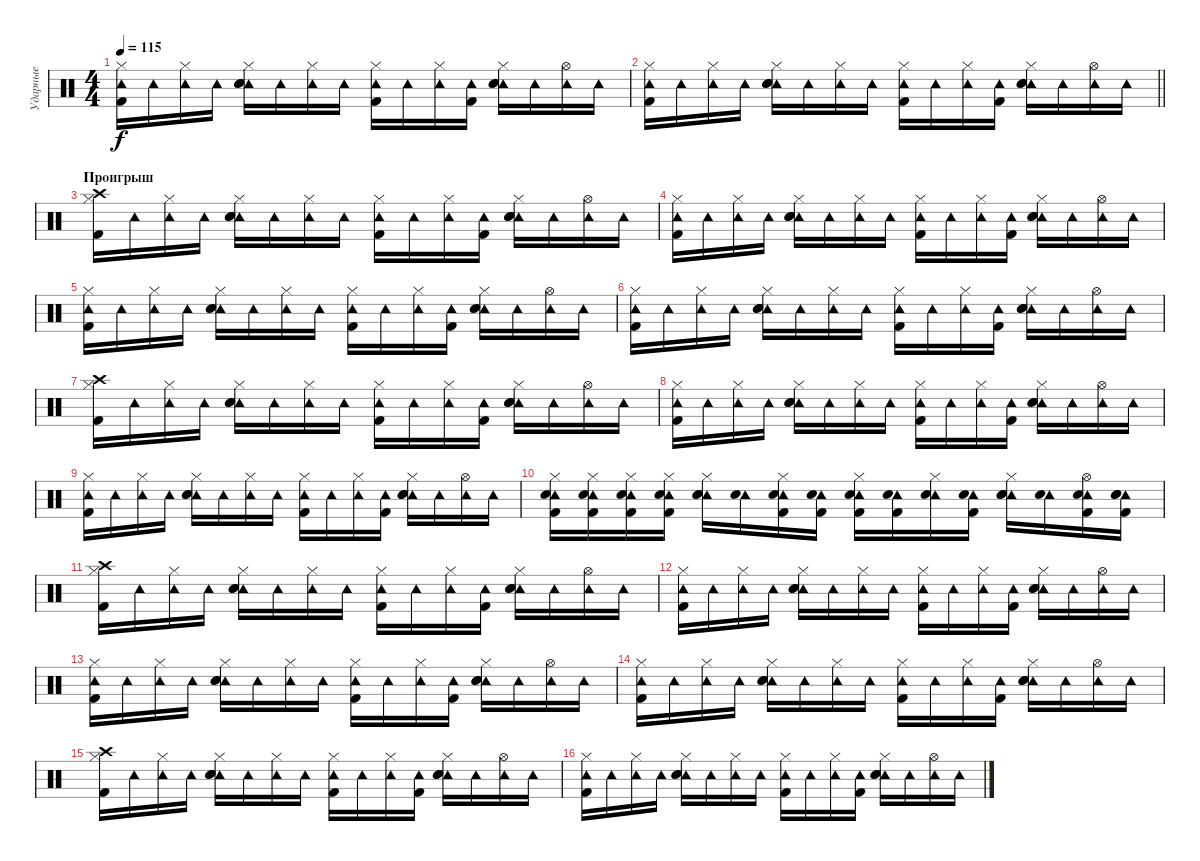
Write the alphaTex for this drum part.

\track ("Ударные" "Ударные") {instrument percussion}
\staff {score}
\articulation defaults
\ts (4 4)
\tempo 115
\clef neutral
\ks c
("Tambourine (hit)" "Hi-Hat (closed)" "Kick (hit) 2").16{dy f} "Tambourine (hit)".16 ("Tambourine (hit)" "Hi-Hat (closed)").16 "Tambourine (hit)".16 ("Tambourine (hit)" "Hi-Hat (closed)" "Electric Snare (hit)" "Snare (hit) 2").16 "Tambourine (hit)".16 ("Tambourine (hit)" "Hi-Hat (closed)").16 "Tambourine (hit)".16 ("Tambourine (hit)" "Hi-Hat (closed)" "Kick (hit) 2").16 "Tambourine (hit)".16 ("Tambourine (hit)" "Hi-Hat (closed)").16 ("Tambourine (hit)" "Kick (hit) 2").16 ("Tambourine (hit)" "Hi-Hat (closed)" "Electric Snare (hit)" "Snare (hit) 2").16 "Tambourine (hit)".16 ("Tambourine (hit)" "Hi-Hat (open)").16 "Tambourine (hit)".16 |
\barLineRight lightlight
("Tambourine (hit)" "Hi-Hat (closed)" "Kick (hit) 2").16 "Tambourine (hit)".16 ("Tambourine (hit)" "Hi-Hat (closed)").16 "Tambourine (hit)".16 ("Tambourine (hit)" "Hi-Hat (closed)" "Electric Snare (hit)" "Snare (hit) 2").16 "Tambourine (hit)".16 ("Tambourine (hit)" "Hi-Hat (closed)").16 "Tambourine (hit)".16 ("Tambourine (hit)" "Hi-Hat (closed)" "Kick (hit) 2").16 "Tambourine (hit)".16 ("Tambourine (hit)" "Hi-Hat (closed)").16 ("Tambourine (hit)" "Kick (hit) 2").16 ("Tambourine (hit)" "Hi-Hat (closed)" "Electric Snare (hit)" "Snare (hit) 2").16 "Tambourine (hit)".16 ("Tambourine (hit)" "Hi-Hat (open)").16 "Tambourine (hit)".16 |
\section ("" "Проигрыш")
("Crash high (hit)" "Hi-Hat (closed)" "Kick (hit) 2").16 "Tambourine (hit)".16 ("Tambourine (hit)" "Hi-Hat (closed)").16 "Tambourine (hit)".16 ("Tambourine (hit)" "Hi-Hat (closed)" "Electric Snare (hit)" "Snare (hit) 2").16 "Tambourine (hit)".16 ("Tambourine (hit)" "Hi-Hat (closed)").16 "Tambourine (hit)".16 ("Tambourine (hit)" "Hi-Hat (closed)" "Kick (hit) 2").16 "Tambourine (hit)".16 ("Tambourine (hit)" "Hi-Hat (closed)").16 ("Tambourine (hit)" "Kick (hit) 2").16 ("Tambourine (hit)" "Hi-Hat (closed)" "Electric Snare (hit)" "Snare (hit) 2").16 "Tambourine (hit)".16 ("Tambourine (hit)" "Hi-Hat (open)").16 "Tambourine (hit)".16 |
("Tambourine (hit)" "Hi-Hat (closed)" "Kick (hit) 2").16 "Tambourine (hit)".16 ("Tambourine (hit)" "Hi-Hat (closed)").16 "Tambourine (hit)".16 ("Tambourine (hit)" "Hi-Hat (closed)" "Electric Snare (hit)" "Snare (hit) 2").16 "Tambourine (hit)".16 ("Tambourine (hit)" "Hi-Hat (closed)").16 "Tambourine (hit)".16 ("Tambourine (hit)" "Hi-Hat (closed)" "Kick (hit) 2").16 "Tambourine (hit)".16 ("Tambourine (hit)" "Hi-Hat (closed)").16 ("Tambourine (hit)" "Kick (hit) 2").16 ("Tambourine (hit)" "Hi-Hat (closed)" "Electric Snare (hit)" "Snare (hit) 2").16 "Tambourine (hit)".16 ("Tambourine (hit)" "Hi-Hat (open)").16 "Tambourine (hit)".16 |
("Tambourine (hit)" "Hi-Hat (closed)" "Kick (hit) 2").16 "Tambourine (hit)".16 ("Tambourine (hit)" "Hi-Hat (closed)").16 "Tambourine (hit)".16 ("Tambourine (hit)" "Hi-Hat (closed)" "Electric Snare (hit)" "Snare (hit) 2").16 "Tambourine (hit)".16 ("Tambourine (hit)" "Hi-Hat (closed)").16 "Tambourine (hit)".16 ("Tambourine (hit)" "Hi-Hat (closed)" "Kick (hit) 2").16 "Tambourine (hit)".16 ("Tambourine (hit)" "Hi-Hat (closed)").16 ("Tambourine (hit)" "Kick (hit) 2").16 ("Tambourine (hit)" "Hi-Hat (closed)" "Electric Snare (hit)" "Snare (hit) 2").16 "Tambourine (hit)".16 ("Tambourine (hit)" "Hi-Hat (open)").16 "Tambourine (hit)".16 |
("Tambourine (hit)" "Hi-Hat (closed)" "Kick (hit) 2").16 "Tambourine (hit)".16 ("Tambourine (hit)" "Hi-Hat (closed)").16 "Tambourine (hit)".16 ("Tambourine (hit)" "Hi-Hat (closed)" "Electric Snare (hit)" "Snare (hit) 2").16 "Tambourine (hit)".16 ("Tambourine (hit)" "Hi-Hat (closed)").16 "Tambourine (hit)".16 ("Tambourine (hit)" "Hi-Hat (closed)" "Kick (hit) 2").16 "Tambourine (hit)".16 ("Tambourine (hit)" "Hi-Hat (closed)").16 ("Tambourine (hit)" "Kick (hit) 2").16 ("Tambourine (hit)" "Hi-Hat (closed)" "Electric Snare (hit)" "Snare (hit) 2").16 "Tambourine (hit)".16 ("Tambourine (hit)" "Hi-Hat (open)").16 "Tambourine (hit)".16 |
("Crash high (hit)" "Hi-Hat (closed)" "Kick (hit) 2").16 "Tambourine (hit)".16 ("Tambourine (hit)" "Hi-Hat (closed)").16 "Tambourine (hit)".16 ("Tambourine (hit)" "Hi-Hat (closed)" "Electric Snare (hit)" "Snare (hit) 2").16 "Tambourine (hit)".16 ("Tambourine (hit)" "Hi-Hat (closed)").16 "Tambourine (hit)".16 ("Tambourine (hit)" "Hi-Hat (closed)" "Kick (hit) 2").16 "Tambourine (hit)".16 ("Tambourine (hit)" "Hi-Hat (closed)").16 ("Tambourine (hit)" "Kick (hit) 2").16 ("Tambourine (hit)" "Hi-Hat (closed)" "Electric Snare (hit)" "Snare (hit) 2").16 "Tambourine (hit)".16 ("Tambourine (hit)" "Hi-Hat (open)").16 "Tambourine (hit)".16 |
("Tambourine (hit)" "Hi-Hat (closed)" "Kick (hit) 2").16 "Tambourine (hit)".16 ("Tambourine (hit)" "Hi-Hat (closed)").16 "Tambourine (hit)".16 ("Tambourine (hit)" "Hi-Hat (closed)" "Electric Snare (hit)" "Snare (hit) 2").16 "Tambourine (hit)".16 ("Tambourine (hit)" "Hi-Hat (closed)").16 "Tambourine (hit)".16 ("Tambourine (hit)" "Hi-Hat (closed)" "Kick (hit) 2").16 "Tambourine (hit)".16 ("Tambourine (hit)" "Hi-Hat (closed)").16 ("Tambourine (hit)" "Kick (hit) 2").16 ("Tambourine (hit)" "Hi-Hat (closed)" "Electric Snare (hit)" "Snare (hit) 2").16 "Tambourine (hit)".16 ("Tambourine (hit)" "Hi-Hat (open)").16 "Tambourine (hit)".16 |
("Tambourine (hit)" "Hi-Hat (closed)" "Kick (hit) 2").16 "Tambourine (hit)".16 ("Tambourine (hit)" "Hi-Hat (closed)").16 "Tambourine (hit)".16 ("Tambourine (hit)" "Hi-Hat (closed)" "Electric Snare (hit)" "Snare (hit) 2").16 "Tambourine (hit)".16 ("Tambourine (hit)" "Hi-Hat (closed)").16 "Tambourine (hit)".16 ("Tambourine (hit)" "Hi-Hat (closed)" "Kick (hit) 2").16 "Tambourine (hit)".16 ("Tambourine (hit)" "Hi-Hat (closed)").16 ("Tambourine (hit)" "Kick (hit) 2").16 ("Tambourine (hit)" "Hi-Hat (closed)" "Electric Snare (hit)" "Snare (hit) 2").16 "Tambourine (hit)".16 ("Tambourine (hit)" "Hi-Hat (open)").16 "Tambourine (hit)".16 |
("Tambourine (hit)" "Hi-Hat (closed)" "Electric Snare (hit)" "Kick (hit) 2").16 ("Tambourine (hit)" "Hi-Hat (closed)" "Electric Snare (hit)" "Kick (hit) 2").16 ("Tambourine (hit)" "Hi-Hat (closed)" "Electric Snare (hit)" "Kick (hit) 2").16 ("Tambourine (hit)" "Hi-Hat (closed)" "Electric Snare (hit)" "Kick (hit) 2").16 ("Tambourine (hit)" "Hi-Hat (closed)" "Electric Snare (hit)" "Snare (hit) 2").16 ("Tambourine (hit)" "Electric Snare (hit)").16 ("Tambourine (hit)" "Hi-Hat (closed)" "Electric Snare (hit)" "Kick (hit) 2").16 ("Tambourine (hit)" "Electric Snare (hit)" "Kick (hit) 2").16 ("Tambourine (hit)" "Hi-Hat (closed)" "Electric Snare (hit)" "Kick (hit) 2").16 ("Tambourine (hit)" "Electric Snare (hit)" "Kick (hit) 2").16 ("Tambourine (hit)" "Hi-Hat (closed)" "Electric Snare (hit)").16 ("Tambourine (hit)" "Electric Snare (hit)" "Kick (hit) 2").16 ("Tambourine (hit)" "Hi-Hat (closed)" "Electric Snare (hit)" "Snare (hit) 2").16 ("Tambourine (hit)" "Electric Snare (hit)").16 ("Tambourine (hit)" "Hi-Hat (open)" "Electric Snare (hit)" "Kick (hit) 2").16 ("Tambourine (hit)" "Electric Snare (hit)" "Snare (hit) 2" "Kick (hit) 2").16 |
("Crash high (hit)" "Hi-Hat (closed)" "Kick (hit) 2").16 "Tambourine (hit)".16 ("Tambourine (hit)" "Hi-Hat (closed)").16 "Tambourine (hit)".16 ("Tambourine (hit)" "Hi-Hat (closed)" "Electric Snare (hit)" "Snare (hit) 2").16 "Tambourine (hit)".16 ("Tambourine (hit)" "Hi-Hat (closed)").16 "Tambourine (hit)".16 ("Tambourine (hit)" "Hi-Hat (closed)" "Kick (hit) 2").16 "Tambourine (hit)".16 ("Tambourine (hit)" "Hi-Hat (closed)").16 ("Tambourine (hit)" "Kick (hit) 2").16 ("Tambourine (hit)" "Hi-Hat (closed)" "Electric Snare (hit)" "Snare (hit) 2").16 "Tambourine (hit)".16 ("Tambourine (hit)" "Hi-Hat (open)").16 "Tambourine (hit)".16 |
("Tambourine (hit)" "Hi-Hat (closed)" "Kick (hit) 2").16 "Tambourine (hit)".16 ("Tambourine (hit)" "Hi-Hat (closed)").16 "Tambourine (hit)".16 ("Tambourine (hit)" "Hi-Hat (closed)" "Electric Snare (hit)" "Snare (hit) 2").16 "Tambourine (hit)".16 ("Tambourine (hit)" "Hi-Hat (closed)").16 "Tambourine (hit)".16 ("Tambourine (hit)" "Hi-Hat (closed)" "Kick (hit) 2").16 "Tambourine (hit)".16 ("Tambourine (hit)" "Hi-Hat (closed)").16 ("Tambourine (hit)" "Kick (hit) 2").16 ("Tambourine (hit)" "Hi-Hat (closed)" "Electric Snare (hit)" "Snare (hit) 2").16 "Tambourine (hit)".16 ("Tambourine (hit)" "Hi-Hat (open)").16 "Tambourine (hit)".16 |
("Tambourine (hit)" "Hi-Hat (closed)" "Kick (hit) 2").16 "Tambourine (hit)".16 ("Tambourine (hit)" "Hi-Hat (closed)").16 "Tambourine (hit)".16 ("Tambourine (hit)" "Hi-Hat (closed)" "Electric Snare (hit)" "Snare (hit) 2").16 "Tambourine (hit)".16 ("Tambourine (hit)" "Hi-Hat (closed)").16 "Tambourine (hit)".16 ("Tambourine (hit)" "Hi-Hat (closed)" "Kick (hit) 2").16 "Tambourine (hit)".16 ("Tambourine (hit)" "Hi-Hat (closed)").16 ("Tambourine (hit)" "Kick (hit) 2").16 ("Tambourine (hit)" "Hi-Hat (closed)" "Electric Snare (hit)" "Snare (hit) 2").16 "Tambourine (hit)".16 ("Tambourine (hit)" "Hi-Hat (open)").16 "Tambourine (hit)".16 |
("Tambourine (hit)" "Hi-Hat (closed)" "Kick (hit) 2").16 "Tambourine (hit)".16 ("Tambourine (hit)" "Hi-Hat (closed)").16 "Tambourine (hit)".16 ("Tambourine (hit)" "Hi-Hat (closed)" "Electric Snare (hit)" "Snare (hit) 2").16 "Tambourine (hit)".16 ("Tambourine (hit)" "Hi-Hat (closed)").16 "Tambourine (hit)".16 ("Tambourine (hit)" "Hi-Hat (closed)" "Kick (hit) 2").16 "Tambourine (hit)".16 ("Tambourine (hit)" "Hi-Hat (closed)").16 ("Tambourine (hit)" "Kick (hit) 2").16 ("Tambourine (hit)" "Hi-Hat (closed)" "Electric Snare (hit)" "Snare (hit) 2").16 "Tambourine (hit)".16 ("Tambourine (hit)" "Hi-Hat (open)").16 "Tambourine (hit)".16 |
("Crash high (hit)" "Hi-Hat (closed)" "Kick (hit) 2").16 "Tambourine (hit)".16 ("Tambourine (hit)" "Hi-Hat (closed)").16 "Tambourine (hit)".16 ("Tambourine (hit)" "Hi-Hat (closed)" "Electric Snare (hit)" "Snare (hit) 2").16 "Tambourine (hit)".16 ("Tambourine (hit)" "Hi-Hat (closed)").16 "Tambourine (hit)".16 ("Tambourine (hit)" "Hi-Hat (closed)" "Kick (hit) 2").16 "Tambourine (hit)".16 ("Tambourine (hit)" "Hi-Hat (closed)").16 ("Tambourine (hit)" "Kick (hit) 2").16 ("Tambourine (hit)" "Hi-Hat (closed)" "Electric Snare (hit)" "Snare (hit) 2").16 "Tambourine (hit)".16 ("Tambourine (hit)" "Hi-Hat (open)").16 "Tambourine (hit)".16 |
("Tambourine (hit)" "Hi-Hat (closed)" "Kick (hit) 2").16 "Tambourine (hit)".16 ("Tambourine (hit)" "Hi-Hat (closed)").16 "Tambourine (hit)".16 ("Tambourine (hit)" "Hi-Hat (closed)" "Electric Snare (hit)" "Snare (hit) 2").16 "Tambourine (hit)".16 ("Tambourine (hit)" "Hi-Hat (closed)").16 "Tambourine (hit)".16 ("Tambourine (hit)" "Hi-Hat (closed)" "Kick (hit) 2").16 "Tambourine (hit)".16 ("Tambourine (hit)" "Hi-Hat (closed)").16 ("Tambourine (hit)" "Kick (hit) 2").16 ("Tambourine (hit)" "Hi-Hat (closed)" "Electric Snare (hit)" "Snare (hit) 2").16 "Tambourine (hit)".16 ("Tambourine (hit)" "Hi-Hat (open)").16 "Tambourine (hit)".16
